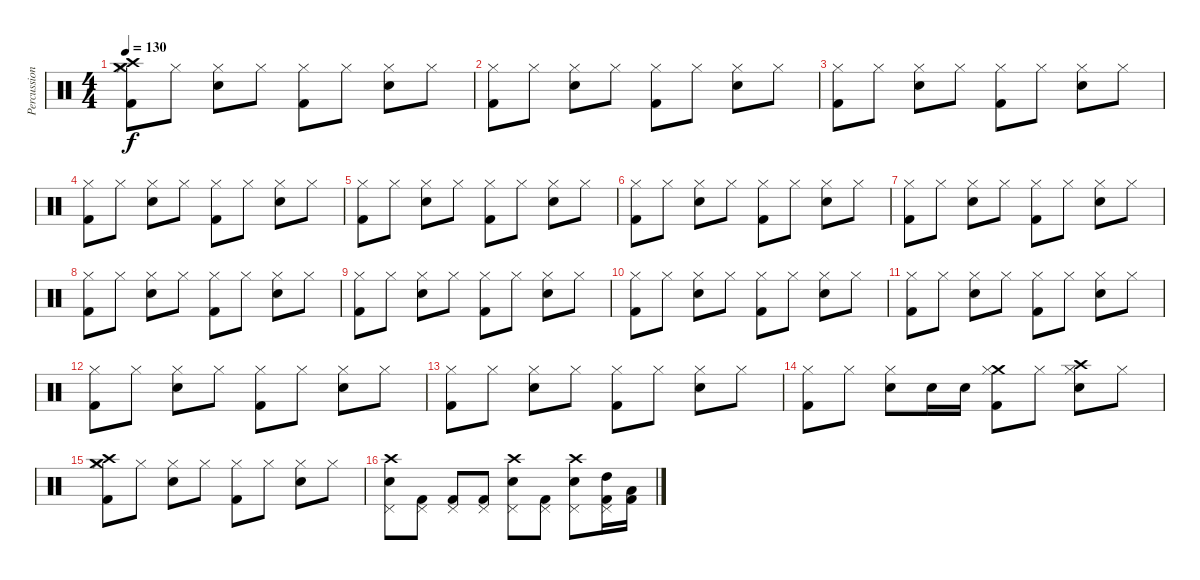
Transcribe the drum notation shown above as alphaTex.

\track ("Percussion" "Percussion") {instrument percussion}
\staff {score}
\articulation defaults
\ts (4 4)
\tempo 130
\clef neutral
\ks c
("Crash medium (hit)" "Crash high (hit)" "Hi-Hat (closed)" "Kick (hit) 2").8{dy f} "Hi-Hat (closed)".8 ("Hi-Hat (closed)" "Snare (hit) 2").8 "Hi-Hat (closed)".8 ("Hi-Hat (closed)" "Kick (hit) 2").8 "Hi-Hat (closed)".8 ("Hi-Hat (closed)" "Snare (hit) 2").8 "Hi-Hat (closed)".8 |
("Hi-Hat (closed)" "Kick (hit) 2").8 "Hi-Hat (closed)".8 ("Hi-Hat (closed)" "Snare (hit) 2").8 "Hi-Hat (closed)".8 ("Hi-Hat (closed)" "Kick (hit) 2").8 "Hi-Hat (closed)".8 ("Hi-Hat (closed)" "Snare (hit) 2").8 "Hi-Hat (closed)".8 |
("Hi-Hat (closed)" "Kick (hit) 2").8 "Hi-Hat (closed)".8 ("Hi-Hat (closed)" "Snare (hit) 2").8 "Hi-Hat (closed)".8 ("Hi-Hat (closed)" "Kick (hit) 2").8 "Hi-Hat (closed)".8 ("Hi-Hat (closed)" "Snare (hit) 2").8 "Hi-Hat (closed)".8 |
("Hi-Hat (closed)" "Kick (hit) 2").8 "Hi-Hat (closed)".8 ("Hi-Hat (closed)" "Snare (hit) 2").8 "Hi-Hat (closed)".8 ("Hi-Hat (closed)" "Kick (hit) 2").8 "Hi-Hat (closed)".8 ("Hi-Hat (closed)" "Snare (hit) 2").8 "Hi-Hat (closed)".8 |
("Hi-Hat (closed)" "Kick (hit) 2").8 "Hi-Hat (closed)".8 ("Hi-Hat (closed)" "Snare (hit) 2").8 "Hi-Hat (closed)".8 ("Hi-Hat (closed)" "Kick (hit) 2").8 "Hi-Hat (closed)".8 ("Hi-Hat (closed)" "Snare (hit) 2").8 "Hi-Hat (closed)".8 |
("Hi-Hat (closed)" "Kick (hit) 2").8 "Hi-Hat (closed)".8 ("Hi-Hat (closed)" "Snare (hit) 2").8 "Hi-Hat (closed)".8 ("Hi-Hat (closed)" "Kick (hit) 2").8 "Hi-Hat (closed)".8 ("Hi-Hat (closed)" "Snare (hit) 2").8 "Hi-Hat (closed)".8 |
("Hi-Hat (closed)" "Kick (hit) 2").8 "Hi-Hat (closed)".8 ("Hi-Hat (closed)" "Snare (hit) 2").8 "Hi-Hat (closed)".8 ("Hi-Hat (closed)" "Kick (hit) 2").8 "Hi-Hat (closed)".8 ("Hi-Hat (closed)" "Snare (hit) 2").8 "Hi-Hat (closed)".8 |
("Hi-Hat (closed)" "Kick (hit) 2").8 "Hi-Hat (closed)".8 ("Hi-Hat (closed)" "Snare (hit) 2").8 "Hi-Hat (closed)".8 ("Hi-Hat (closed)" "Kick (hit) 2").8 "Hi-Hat (closed)".8 ("Hi-Hat (closed)" "Snare (hit) 2").8 "Hi-Hat (closed)".8 |
("Hi-Hat (closed)" "Kick (hit) 2").8 "Hi-Hat (closed)".8 ("Hi-Hat (closed)" "Snare (hit) 2").8 "Hi-Hat (closed)".8 ("Hi-Hat (closed)" "Kick (hit) 2").8 "Hi-Hat (closed)".8 ("Hi-Hat (closed)" "Snare (hit) 2").8 "Hi-Hat (closed)".8 |
("Hi-Hat (closed)" "Kick (hit) 2").8 "Hi-Hat (closed)".8 ("Hi-Hat (closed)" "Snare (hit) 2").8 "Hi-Hat (closed)".8 ("Hi-Hat (closed)" "Kick (hit) 2").8 "Hi-Hat (closed)".8 ("Hi-Hat (closed)" "Snare (hit) 2").8 "Hi-Hat (closed)".8 |
("Hi-Hat (closed)" "Kick (hit) 2").8 "Hi-Hat (closed)".8 ("Hi-Hat (closed)" "Snare (hit) 2").8 "Hi-Hat (closed)".8 ("Hi-Hat (closed)" "Kick (hit) 2").8 "Hi-Hat (closed)".8 ("Hi-Hat (closed)" "Snare (hit) 2").8 "Hi-Hat (closed)".8 |
("Hi-Hat (closed)" "Kick (hit) 2").8 "Hi-Hat (closed)".8 ("Hi-Hat (closed)" "Snare (hit) 2").8 "Hi-Hat (closed)".8 ("Hi-Hat (closed)" "Kick (hit) 2").8 "Hi-Hat (closed)".8 ("Hi-Hat (closed)" "Snare (hit) 2").8 "Hi-Hat (closed)".8 |
("Hi-Hat (closed)" "Kick (hit) 2").8 "Hi-Hat (closed)".8 ("Hi-Hat (closed)" "Snare (hit) 2").8 "Hi-Hat (closed)".8 ("Hi-Hat (closed)" "Kick (hit) 2").8 "Hi-Hat (closed)".8 ("Hi-Hat (closed)" "Snare (hit) 2").8 "Hi-Hat (closed)".8 |
("Hi-Hat (closed)" "Kick (hit) 2").8 "Hi-Hat (closed)".8 ("Hi-Hat (closed)" "Snare (hit) 2").8 "Snare (hit) 2".16 "Snare (hit) 2".16 ("Crash medium (hit)" "Hi-Hat (closed)" "Kick (hit) 2").8 "Hi-Hat (closed)".8 ("Crash high (hit)" "Hi-Hat (closed)" "Snare (hit) 2").8 "Hi-Hat (closed)".8 |
("Crash high (hit)" "Crash medium (hit)" "Hi-Hat (closed)" "Kick (hit) 2").8 "Hi-Hat (closed)".8 ("Hi-Hat (closed)" "Snare (hit) 2").8 "Hi-Hat (closed)".8 ("Hi-Hat (closed)" "Kick (hit) 2").8 "Hi-Hat (closed)".8 ("Hi-Hat (closed)" "Snare (hit) 2").8 "Hi-Hat (closed)".8 |
("Crash high (hit)" "Pedal Hi-Hat (hit)" "Snare (hit) 2").8 ("Pedal Hi-Hat (hit)" "Kick (hit) 2").8 ("Pedal Hi-Hat (hit)" "Kick (hit) 2").8 ("Pedal Hi-Hat (hit)" "Kick (hit) 2").8 ("Crash high (hit)" "Pedal Hi-Hat (hit)" "Snare (hit) 2").8 ("Pedal Hi-Hat (hit)" "Kick (hit) 2").8 ("Crash high (hit)" "Pedal Hi-Hat (hit)" "Snare (hit) 2").8 ("Pedal Hi-Hat (hit)" "High Tom (hit)" "Kick (hit) 2").16 ("Low Tom (hit)" "Kick (hit) 2").16
